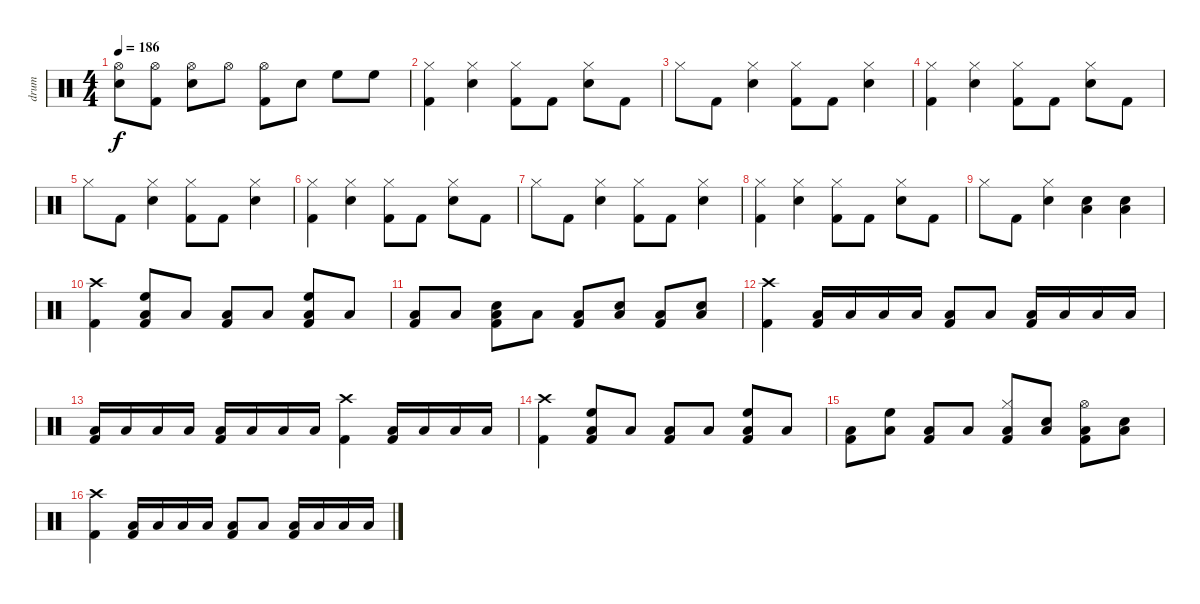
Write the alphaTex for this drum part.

\track ("drum" "drum") {instrument percussion}
\staff {score}
\articulation defaults
\ts (4 4)
\tempo 186
\clef neutral
\ks c
("Hi-Hat (open)" "Snare (hit) 2").8{dy f} ("Hi-Hat (open)" "Kick (hit) 2").8 ("Hi-Hat (open)" "Snare (hit) 2").8 "Hi-Hat (open)".8 ("Hi-Hat (open)" "Kick (hit) 2").8 "Snare (hit) 2".8 "High Floor Tom (hit)".8 "High Floor Tom (hit)".8 |
("Hi-Hat (closed)" "Kick (hit) 2").4 ("Hi-Hat (closed)" "Snare (hit) 2").4 ("Hi-Hat (closed)" "Kick (hit) 2").8 "Kick (hit) 2".8 ("Hi-Hat (closed)" "Snare (hit) 2").8 "Kick (hit) 2".8 |
"Hi-Hat (closed)".8 "Kick (hit) 2".8 ("Hi-Hat (closed)" "Snare (hit) 2").4 ("Hi-Hat (closed)" "Kick (hit) 2").8 "Kick (hit) 2".8 ("Hi-Hat (closed)" "Snare (hit) 2").4 |
("Hi-Hat (closed)" "Kick (hit) 2").4 ("Hi-Hat (closed)" "Snare (hit) 2").4 ("Hi-Hat (closed)" "Kick (hit) 2").8 "Kick (hit) 2".8 ("Hi-Hat (closed)" "Snare (hit) 2").8 "Kick (hit) 2".8 |
"Hi-Hat (closed)".8 "Kick (hit) 2".8 ("Hi-Hat (closed)" "Snare (hit) 2").4 ("Hi-Hat (closed)" "Kick (hit) 2").8 "Kick (hit) 2".8 ("Hi-Hat (closed)" "Snare (hit) 2").4 |
("Hi-Hat (closed)" "Kick (hit) 2").4 ("Hi-Hat (closed)" "Snare (hit) 2").4 ("Hi-Hat (closed)" "Kick (hit) 2").8 "Kick (hit) 2".8 ("Hi-Hat (closed)" "Snare (hit) 2").8 "Kick (hit) 2".8 |
"Hi-Hat (closed)".8 "Kick (hit) 2".8 ("Hi-Hat (closed)" "Snare (hit) 2").4 ("Hi-Hat (closed)" "Kick (hit) 2").8 "Kick (hit) 2".8 ("Hi-Hat (closed)" "Snare (hit) 2").4 |
("Hi-Hat (closed)" "Kick (hit) 2").4 ("Hi-Hat (closed)" "Snare (hit) 2").4 ("Hi-Hat (closed)" "Kick (hit) 2").8 "Kick (hit) 2".8 ("Hi-Hat (closed)" "Snare (hit) 2").8 "Kick (hit) 2".8 |
"Hi-Hat (closed)".8 "Kick (hit) 2".8 ("Hi-Hat (closed)" "Snare (hit) 2").4 ("Snare (hit) 2" "Low Floor Tom (hit)").4 ("Snare (hit) 2" "Low Floor Tom (hit)").4 |
("Crash high (hit)" "Kick (hit) 2").4 ("High Floor Tom (hit)" "Low Floor Tom (hit)" "Kick (hit) 2").8 "Low Floor Tom (hit)".8 ("Low Floor Tom (hit)" "Kick (hit) 2").8 "Low Floor Tom (hit)".8 ("High Floor Tom (hit)" "Low Floor Tom (hit)" "Kick (hit) 2").8 "Low Floor Tom (hit)".8 |
("Low Floor Tom (hit)" "Kick (hit) 2").8 "Low Floor Tom (hit)".8 ("Snare (hit) 2" "Low Floor Tom (hit)" "Kick (hit) 2").8 "Low Floor Tom (hit)".8 ("Low Floor Tom (hit)" "Kick (hit) 2").8 ("Snare (hit) 2" "Low Floor Tom (hit)").8 ("Low Floor Tom (hit)" "Kick (hit) 2").8 ("Snare (hit) 2" "Low Floor Tom (hit)").8 |
("Crash high (hit)" "Kick (hit) 2").4 ("Low Floor Tom (hit)" "Kick (hit) 2").16 "Low Floor Tom (hit)".16 "Low Floor Tom (hit)".16 "Low Floor Tom (hit)".16 ("Low Floor Tom (hit)" "Kick (hit) 2").8 "Low Floor Tom (hit)".8 ("Low Floor Tom (hit)" "Kick (hit) 2").16 "Low Floor Tom (hit)".16 "Low Floor Tom (hit)".16 "Low Floor Tom (hit)".16 |
("Low Floor Tom (hit)" "Kick (hit) 2").16 "Low Floor Tom (hit)".16 "Low Floor Tom (hit)".16 "Low Floor Tom (hit)".16 ("Low Floor Tom (hit)" "Kick (hit) 2").16 "Low Floor Tom (hit)".16 "Low Floor Tom (hit)".16 "Low Floor Tom (hit)".16 ("Crash high (hit)" "Kick (hit) 2").4 ("Low Floor Tom (hit)" "Kick (hit) 2").16 "Low Floor Tom (hit)".16 "Low Floor Tom (hit)".16 "Low Floor Tom (hit)".16 |
("Crash high (hit)" "Kick (hit) 2").4 ("High Floor Tom (hit)" "Low Floor Tom (hit)" "Kick (hit) 2").8 "Low Floor Tom (hit)".8 ("Low Floor Tom (hit)" "Kick (hit) 2").8 "Low Floor Tom (hit)".8 ("High Floor Tom (hit)" "Low Floor Tom (hit)" "Kick (hit) 2").8 "Low Floor Tom (hit)".8 |
("Low Floor Tom (hit)" "Kick (hit) 2").8 ("High Floor Tom (hit)" "Low Floor Tom (hit)").8 ("Low Floor Tom (hit)" "Kick (hit) 2").8 "Low Floor Tom (hit)".8 ("Hi-Hat (closed)" "Low Floor Tom (hit)" "Kick (hit) 2").8 ("Snare (hit) 2" "Low Floor Tom (hit)").8 ("Hi-Hat (open)" "Low Floor Tom (hit)" "Kick (hit) 2").8 ("Snare (hit) 2" "Low Floor Tom (hit)").8 |
("Crash high (hit)" "Kick (hit) 2").4 ("Low Floor Tom (hit)" "Kick (hit) 2").16 "Low Floor Tom (hit)".16 "Low Floor Tom (hit)".16 "Low Floor Tom (hit)".16 ("Low Floor Tom (hit)" "Kick (hit) 2").8 "Low Floor Tom (hit)".8 ("Low Floor Tom (hit)" "Kick (hit) 2").16 "Low Floor Tom (hit)".16 "Low Floor Tom (hit)".16 "Low Floor Tom (hit)".16
